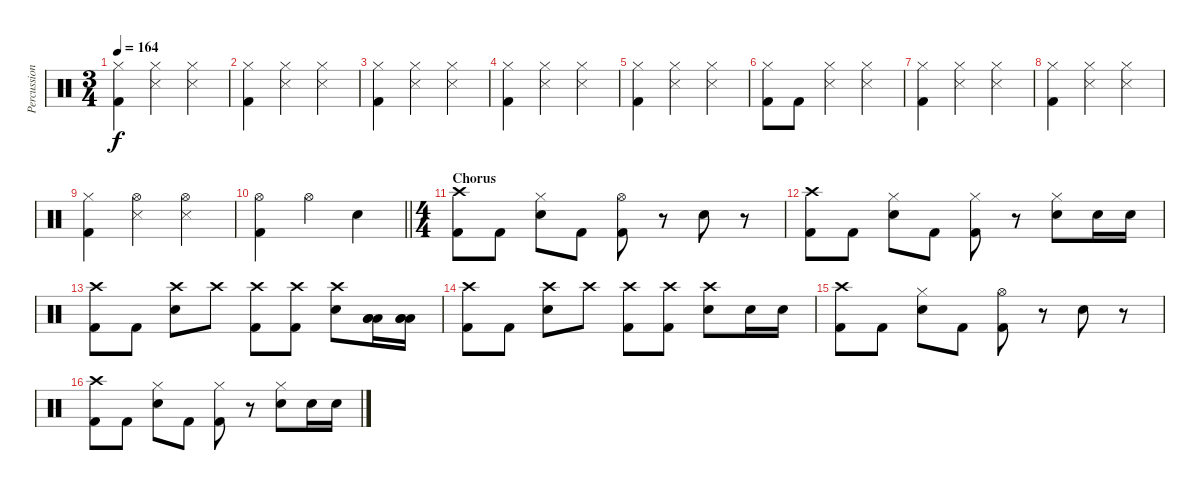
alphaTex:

\track ("Percussion" "Percussion") {instrument percussion}
\staff {score}
\articulation defaults
\ts (3 4)
\tempo 164
\clef neutral
\ks c
("Kick (hit) 2" "Hi-Hat (closed)").4{dy f} ("Hi-Hat (closed)" "Snare (side stick) 3").4 ("Hi-Hat (closed)" "Snare (side stick) 3").4 |
("Kick (hit) 2" "Hi-Hat (closed)").4 ("Hi-Hat (closed)" "Snare (side stick) 3").4 ("Hi-Hat (closed)" "Snare (side stick) 3").4 |
("Kick (hit) 2" "Hi-Hat (closed)").4 ("Hi-Hat (closed)" "Snare (side stick) 3").4 ("Hi-Hat (closed)" "Snare (side stick) 3").4 |
("Kick (hit) 2" "Hi-Hat (closed)").4 ("Hi-Hat (closed)" "Snare (side stick) 3").4 ("Hi-Hat (closed)" "Snare (side stick) 3").4 |
("Kick (hit) 2" "Hi-Hat (closed)").4 ("Hi-Hat (closed)" "Snare (side stick) 3").4 ("Hi-Hat (closed)" "Snare (side stick) 3").4 |
("Kick (hit) 2" "Hi-Hat (closed)").8 "Kick (hit) 2".8 ("Hi-Hat (closed)" "Snare (side stick) 3").4 ("Hi-Hat (closed)" "Snare (side stick) 3").4 |
("Kick (hit) 2" "Hi-Hat (closed)").4 ("Hi-Hat (closed)" "Snare (side stick) 3").4 ("Hi-Hat (closed)" "Snare (side stick) 3").4 |
("Kick (hit) 2" "Hi-Hat (closed)").4 ("Hi-Hat (closed)" "Snare (side stick) 3").4 ("Hi-Hat (closed)" "Snare (side stick) 3").4 |
("Kick (hit) 2" "Hi-Hat (closed)").4 ("Hi-Hat (open)" "Snare (side stick) 3").4 ("Hi-Hat (open)" "Snare (side stick) 3").4 |
\barLineRight lightlight
("Kick (hit) 2" "Hi-Hat (open)").4 "Hi-Hat (open)".4 "Snare (hit) 2".4 |
\ts (4 4)
\section ("" "Chorus")
("Kick (hit) 2" "Crash high (hit)").8 "Kick (hit) 2".8 ("Snare (hit) 2" "Hi-Hat (closed)").8 "Kick (hit) 2".8 ("Kick (hit) 2" "Hi-Hat (open)").8 r.8 "Snare (hit) 2".8 r.8 |
("Kick (hit) 2" "Crash high (hit)").8 "Kick (hit) 2".8 ("Snare (hit) 2" "Hi-Hat (closed)").8 "Kick (hit) 2".8 ("Kick (hit) 2" "Hi-Hat (closed)").8 r.8 ("Snare (hit) 2" "Hi-Hat (closed)").8 "Snare (hit) 2".16 "Snare (hit) 2".16 |
("Kick (hit) 2" "Crash high (hit)").8 "Kick (hit) 2".8 ("Crash high (hit)" "Snare (hit) 2").8 "Crash high (hit)".8 ("Kick (hit) 2" "Crash high (hit)").8 ("Kick (hit) 2" "Crash high (hit)").8 ("Crash high (hit)" "Snare (hit) 2").8 ("Low Floor Tom (hit)" "Low Floor Tom (hit)" "Low Floor Tom (hit)").16 ("Low Floor Tom (hit)" "Low Floor Tom (hit)" "Low Floor Tom (hit)").16 |
("Kick (hit) 2" "Crash high (hit)").8 "Kick (hit) 2".8 ("Crash high (hit)" "Snare (hit) 2").8 "Crash high (hit)".8 ("Kick (hit) 2" "Crash high (hit)").8 ("Kick (hit) 2" "Crash high (hit)").8 ("Crash high (hit)" "Snare (hit) 2").8 "Snare (hit) 2".16 "Snare (hit) 2".16 |
("Kick (hit) 2" "Crash high (hit)").8 "Kick (hit) 2".8 ("Snare (hit) 2" "Hi-Hat (closed)").8 "Kick (hit) 2".8 ("Kick (hit) 2" "Hi-Hat (open)").8 r.8 "Snare (hit) 2".8 r.8 |
("Kick (hit) 2" "Crash high (hit)").8 "Kick (hit) 2".8 ("Snare (hit) 2" "Hi-Hat (closed)").8 "Kick (hit) 2".8 ("Kick (hit) 2" "Hi-Hat (closed)").8 r.8 ("Snare (hit) 2" "Hi-Hat (closed)").8 "Snare (hit) 2".16 "Snare (hit) 2".16
